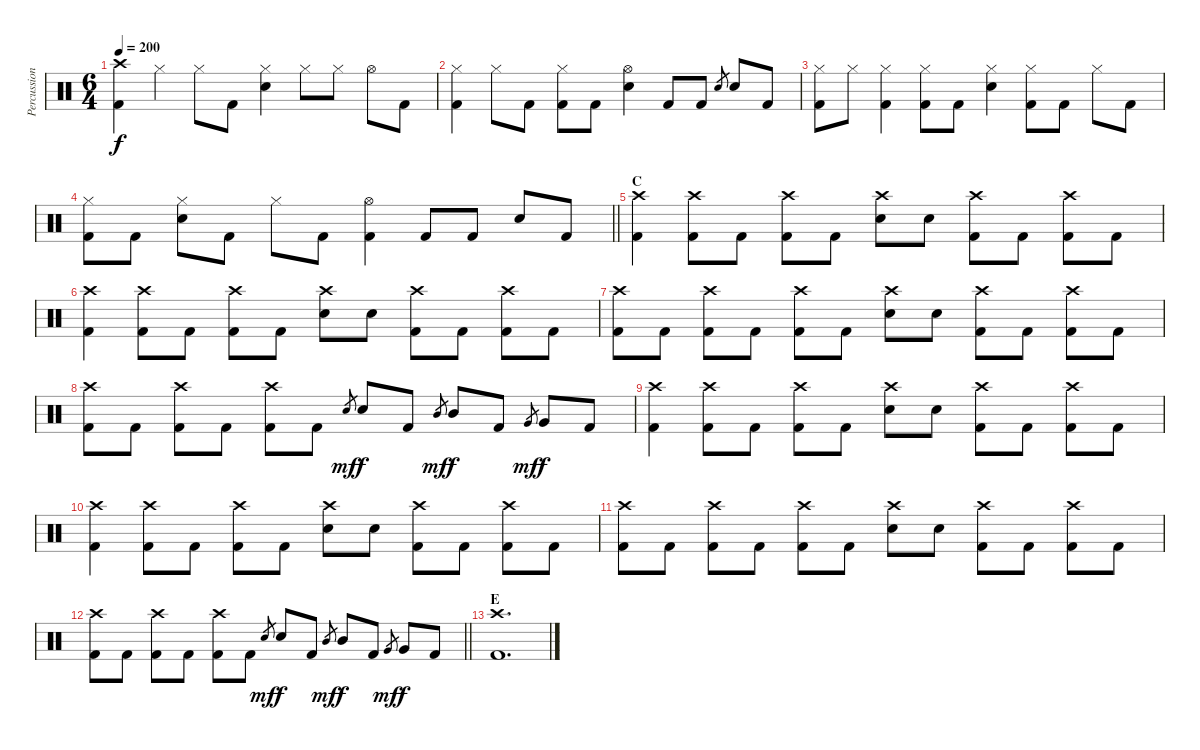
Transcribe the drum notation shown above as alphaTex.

\track ("Percussion" "Percussion") {instrument percussion}
\staff {score}
\articulation defaults
\ts (6 4)
\tempo 200
\clef neutral
\ks c
("Crash high (hit)" "Kick (hit) 2").4{dy f} "Hi-Hat (closed)".4 "Hi-Hat (closed)".8 "Kick (hit) 2".8 ("Hi-Hat (closed)" "Electric Snare (hit)").4 "Hi-Hat (closed)".8 "Hi-Hat (closed)".8 "Hi-Hat (open)".8 "Kick (hit) 2".8 |
("Hi-Hat (closed)" "Kick (hit) 2").4 "Hi-Hat (closed)".8 "Kick (hit) 2".8 ("Hi-Hat (closed)" "Kick (hit) 2").8 "Kick (hit) 2".8 ("Hi-Hat (open)" "Electric Snare (hit)").4 "Kick (hit) 2".8 "Kick (hit) 2".8 "Electric Snare (hit)".8{gr} "Electric Snare (hit)".8 "Kick (hit) 2".8 |
("Hi-Hat (closed)" "Kick (hit) 2").8 "Hi-Hat (closed)".8 ("Hi-Hat (closed)" "Kick (hit) 2").4 ("Hi-Hat (closed)" "Kick (hit) 2").8 "Kick (hit) 2".8 ("Hi-Hat (closed)" "Electric Snare (hit)").4 ("Hi-Hat (closed)" "Kick (hit) 2").8 "Kick (hit) 2".8 "Hi-Hat (closed)".8 "Kick (hit) 2".8 |
\barLineRight lightlight
("Hi-Hat (closed)" "Kick (hit) 2").8 "Kick (hit) 2".8 ("Hi-Hat (closed)" "Electric Snare (hit)").8 "Kick (hit) 2".8 "Hi-Hat (closed)".8 "Kick (hit) 2".8 ("Hi-Hat (open)" "Kick (hit) 2").4 "Kick (hit) 2".8 "Kick (hit) 2".8 "Electric Snare (hit)".8 "Kick (hit) 2".8 |
\section ("" "C")
("Crash high (hit)" "Kick (hit) 2").4 ("Crash high (hit)" "Kick (hit) 2").8 "Kick (hit) 2".8 ("Crash high (hit)" "Kick (hit) 2").8 "Kick (hit) 2".8 ("Crash high (hit)" "Electric Snare (hit)").8 "Electric Snare (hit)".8 ("Crash high (hit)" "Kick (hit) 2").8 "Kick (hit) 2".8 ("Crash high (hit)" "Kick (hit) 2").8 "Kick (hit) 2".8 |
("Crash high (hit)" "Kick (hit) 2").4 ("Crash high (hit)" "Kick (hit) 2").8 "Kick (hit) 2".8 ("Crash high (hit)" "Kick (hit) 2").8 "Kick (hit) 2".8 ("Crash high (hit)" "Electric Snare (hit)").8 "Electric Snare (hit)".8 ("Crash high (hit)" "Kick (hit) 2").8 "Kick (hit) 2".8 ("Crash high (hit)" "Kick (hit) 2").8 "Kick (hit) 2".8 |
("Crash high (hit)" "Kick (hit) 2").8 "Kick (hit) 2".8 ("Crash high (hit)" "Kick (hit) 2").8 "Kick (hit) 2".8 ("Crash high (hit)" "Kick (hit) 2").8 "Kick (hit) 2".8 ("Crash high (hit)" "Electric Snare (hit)").8 "Electric Snare (hit)".8 ("Crash high (hit)" "Kick (hit) 2").8 "Kick (hit) 2".8 ("Crash high (hit)" "Kick (hit) 2").8 "Kick (hit) 2".8 |
("Crash high (hit)" "Kick (hit) 2").8 "Kick (hit) 2".8 ("Crash high (hit)" "Kick (hit) 2").8 "Kick (hit) 2".8 ("Crash high (hit)" "Kick (hit) 2").8 "Kick (hit) 2".8 "Electric Snare (hit)".8{gr dy mf} "Electric Snare (hit)".8{dy f} "Kick (hit) 2".8 "Mid Tom (hit)".8{gr dy mf} "Mid Tom (hit)".8{dy f} "Kick (hit) 2".8 "Very Low Tom (hit)".8{gr dy mf} "Very Low Tom (hit)".8{dy f} "Kick (hit) 2".8 |
("Crash high (hit)" "Kick (hit) 2").4 ("Crash high (hit)" "Kick (hit) 2").8 "Kick (hit) 2".8 ("Crash high (hit)" "Kick (hit) 2").8 "Kick (hit) 2".8 ("Crash high (hit)" "Electric Snare (hit)").8 "Electric Snare (hit)".8 ("Crash high (hit)" "Kick (hit) 2").8 "Kick (hit) 2".8 ("Crash high (hit)" "Kick (hit) 2").8 "Kick (hit) 2".8 |
("Crash high (hit)" "Kick (hit) 2").4 ("Crash high (hit)" "Kick (hit) 2").8 "Kick (hit) 2".8 ("Crash high (hit)" "Kick (hit) 2").8 "Kick (hit) 2".8 ("Crash high (hit)" "Electric Snare (hit)").8 "Electric Snare (hit)".8 ("Crash high (hit)" "Kick (hit) 2").8 "Kick (hit) 2".8 ("Crash high (hit)" "Kick (hit) 2").8 "Kick (hit) 2".8 |
("Crash high (hit)" "Kick (hit) 2").8 "Kick (hit) 2".8 ("Crash high (hit)" "Kick (hit) 2").8 "Kick (hit) 2".8 ("Crash high (hit)" "Kick (hit) 2").8 "Kick (hit) 2".8 ("Crash high (hit)" "Electric Snare (hit)").8 "Electric Snare (hit)".8 ("Crash high (hit)" "Kick (hit) 2").8 "Kick (hit) 2".8 ("Crash high (hit)" "Kick (hit) 2").8 "Kick (hit) 2".8 |
\barLineRight lightlight
("Crash high (hit)" "Kick (hit) 2").8 "Kick (hit) 2".8 ("Crash high (hit)" "Kick (hit) 2").8 "Kick (hit) 2".8 ("Crash high (hit)" "Kick (hit) 2").8 "Kick (hit) 2".8 "Electric Snare (hit)".8{gr dy mf} "Electric Snare (hit)".8{dy f} "Kick (hit) 2".8 "Mid Tom (hit)".8{gr dy mf} "Mid Tom (hit)".8{dy f} "Kick (hit) 2".8 "Very Low Tom (hit)".8{gr dy mf} "Very Low Tom (hit)".8{dy f} "Kick (hit) 2".8 |
\section ("" "E")
("Crash high (hit)" "Kick (hit) 2").1{d}
